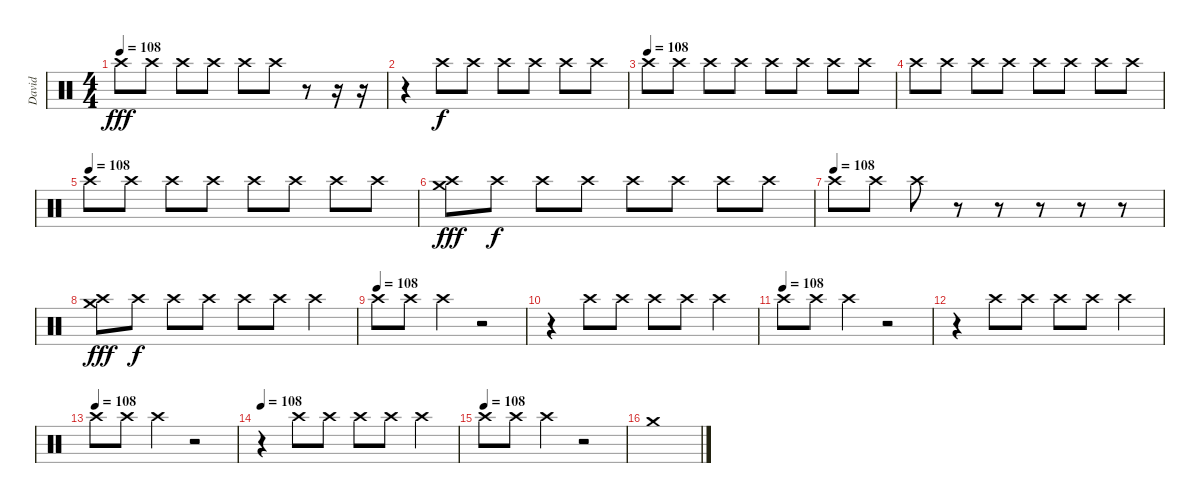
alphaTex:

\track ("David" "David") {instrument percussion}
\staff {score}
\articulation defaults
\ts (4 4)
\tempo 108
\clef neutral
\ks c "Crash high (hit)".8{dy fff} "Crash high (hit)".8 "Crash high (hit)".8 "Crash high (hit)".8 "Crash high (hit)".8 "Crash high (hit)".8
r.8 r.16 r.16 |
r.4 "Crash high (hit)".8{dy f} "Crash high (hit)".8 "Crash high (hit)".8 "Crash high (hit)".8 "Crash high (hit)".8 "Crash high (hit)".8 |
\tempo (108)
"Crash high (hit)".8 "Crash high (hit)".8 "Crash high (hit)".8 "Crash high (hit)".8 "Crash high (hit)".8 "Crash high (hit)".8 "Crash high (hit)".8 "Crash high (hit)".8 |
"Crash high (hit)".8 "Crash high (hit)".8 "Crash high (hit)".8 "Crash high (hit)".8 "Crash high (hit)".8 "Crash high (hit)".8 "Crash high (hit)".8 "Crash high (hit)".8 |
\tempo (108)
"Crash high (hit)".8 "Crash high (hit)".8 "Crash high (hit)".8 "Crash high (hit)".8 "Crash high (hit)".8 "Crash high (hit)".8 "Crash high (hit)".8 "Crash high (hit)".8 |
("Crash high (hit)" "Crash medium (hit)").8{dy fff} "Crash high (hit)".8{dy f} "Crash high (hit)".8 "Crash high (hit)".8 "Crash high (hit)".8 "Crash high (hit)".8 "Crash high (hit)".8 "Crash high (hit)".8 |
\tempo (108)
"Crash high (hit)".8 "Crash high (hit)".8 "Crash high (hit)".8 r.8 r.8 r.8 r.8 r.8 |
("Crash high (hit)" "Crash medium (hit)").8{dy fff} "Crash high (hit)".8{dy f} "Crash high (hit)".8 "Crash high (hit)".8 "Crash high (hit)".8 "Crash high (hit)".8 "Crash high (hit)".4 |
\tempo (108)
"Crash high (hit)".8 "Crash high (hit)".8 "Crash high (hit)".4 r.2 |
r.4 "Crash high (hit)".8 "Crash high (hit)".8 "Crash high (hit)".8 "Crash high (hit)".8 "Crash high (hit)".4 |
\tempo (108)
"Crash high (hit)".8 "Crash high (hit)".8 "Crash high (hit)".4 r.2 |
r.4 "Crash high (hit)".8 "Crash high (hit)".8 "Crash high (hit)".8 "Crash high (hit)".8 "Crash high (hit)".4 |
\tempo (108)
"Crash high (hit)".8 "Crash high (hit)".8 "Crash high (hit)".4 r.2 |
\tempo 108
r.4 "Crash high (hit)".8 "Crash high (hit)".8 "Crash high (hit)".8 "Crash high (hit)".8 "Crash high (hit)".4 |
\tempo (108)
"Crash high (hit)".8 "Crash high (hit)".8 "Crash high (hit)".4 r.2 |
"Crash medium (hit)".1
